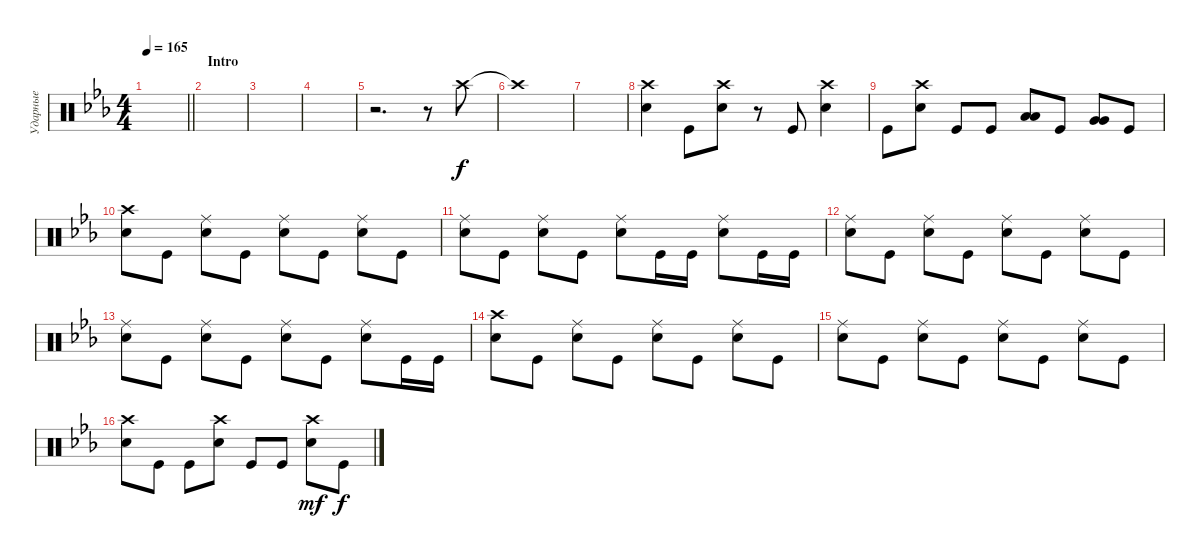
\track ("Ударные" "Ударные") {instrument percussion}
\staff {score}
\articulation defaults
\ts (4 4)
\tempo 165
\clef neutral
\barLineRight lightlight
\ks cminor
|
\section ("" "Intro")
|
|
|
r.2{d} r.8 "Crash high (hit)".8 |
"Crash high (hit)"{t}.1 |
|
("Snare (hit) 2" "Crash high (hit)").4 "Kick (hit)".8 ("Crash high (hit)" "Snare (hit) 2").8 r.8 "Kick (hit)".8 ("Snare (hit) 2" "Crash high (hit)").4 |
"Kick (hit)".8 ("Snare (hit) 2" "Crash high (hit)").8 "Kick (hit)".8 "Kick (hit)".8 ("Low Tom (hit)" "Low Tom (hit)").8{bd 240} "Kick (hit)".8 ("Very Low Tom (hit)" "Very Low Tom (hit)").8{bd 240} "Kick (hit)".8 |
("Snare (hit) 2" "Crash high (hit)").8 "Kick (hit)".8 ("Snare (hit) 2" "Ride (middle)").8 "Kick (hit)".8 ("Snare (hit) 2" "Ride (middle)").8 "Kick (hit)".8 ("Snare (hit) 2" "Ride (middle)").8 "Kick (hit)".8 |
("Snare (hit) 2" "Ride (middle)").8 "Kick (hit)".8 ("Snare (hit) 2" "Ride (middle)").8 "Kick (hit)".8 ("Snare (hit) 2" "Ride (middle)").8 "Kick (hit)".16 "Kick (hit)".16 ("Snare (hit) 2" "Ride (middle)").8 "Kick (hit)".16 "Kick (hit)".16 |
("Snare (hit) 2" "Ride (middle)").8 "Kick (hit)".8 ("Snare (hit) 2" "Ride (middle)").8 "Kick (hit)".8 ("Snare (hit) 2" "Ride (middle)").8 "Kick (hit)".8 ("Snare (hit) 2" "Ride (middle)").8 "Kick (hit)".8 |
("Snare (hit) 2" "Ride (middle)").8 "Kick (hit)".8 ("Snare (hit) 2" "Ride (middle)").8 "Kick (hit)".8 ("Snare (hit) 2" "Ride (middle)").8 "Kick (hit)".8 ("Snare (hit) 2" "Ride (middle)").8 "Kick (hit)".16 "Kick (hit)".16 |
("Snare (hit) 2" "Crash high (hit)").8 "Kick (hit)".8 ("Snare (hit) 2" "Ride (middle)").8 "Kick (hit)".8 ("Snare (hit) 2" "Ride (middle)").8 "Kick (hit)".8 ("Snare (hit) 2" "Ride (middle)").8 "Kick (hit)".8 |
("Snare (hit) 2" "Ride (middle)").8 "Kick (hit)".8 ("Snare (hit) 2" "Ride (middle)").8 "Kick (hit)".8 ("Snare (hit) 2" "Ride (middle)").8 "Kick (hit)".8 ("Snare (hit) 2" "Ride (middle)").8 "Kick (hit)".8 |
("Snare (hit) 2" "Crash high (hit)").8 "Kick (hit)".8 "Kick (hit)".8 ("Snare (hit) 2" "Crash high (hit)").8 "Kick (hit)".8 "Kick (hit)".8 ("Snare (hit) 2" "Crash high (hit)").8{dy mf} "Kick (hit)".8{dy f}
